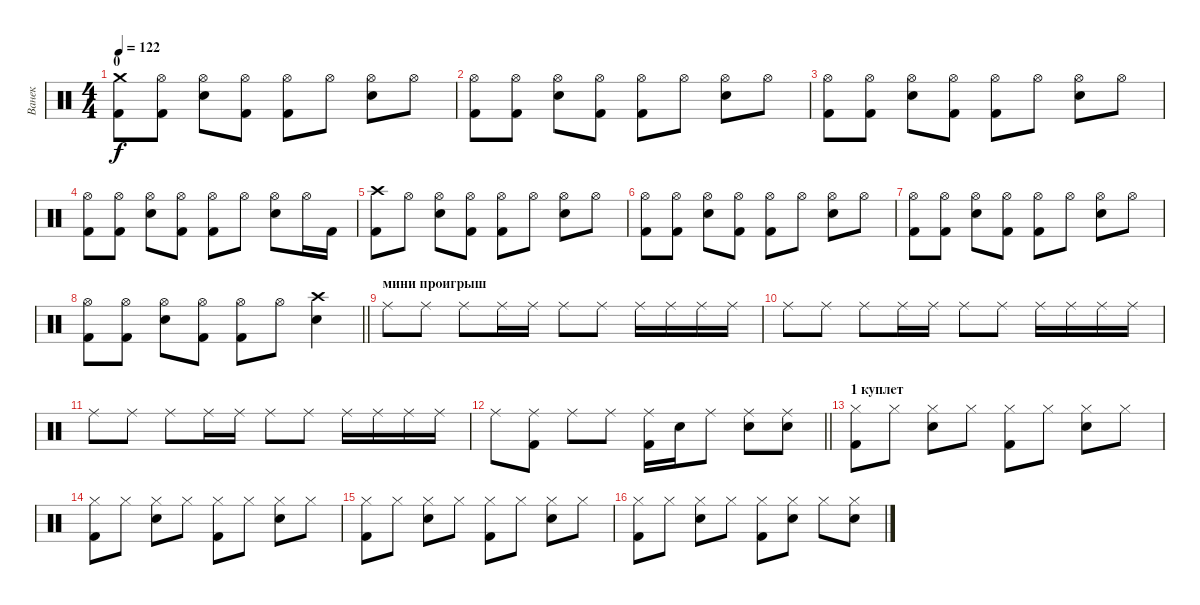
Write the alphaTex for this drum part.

\track ("Ванек" "Ванек") {instrument percussion}
\staff {score}
\articulation defaults
\ts (4 4)
\section ("" "0")
\tempo 122
\clef neutral
\ks c
("Crash medium (hit)" "Kick (hit) 2").8{dy f} ("Hi-Hat (open)" "Kick (hit) 2").8 ("Hi-Hat (open)" "Electric Snare (hit)").8 ("Hi-Hat (open)" "Kick (hit) 2").8 ("Hi-Hat (open)" "Kick (hit) 2").8 "Hi-Hat (open)".8 ("Hi-Hat (open)" "Electric Snare (hit)").8 "Hi-Hat (open)".8 |
("Hi-Hat (open)" "Kick (hit) 2").8 ("Hi-Hat (open)" "Kick (hit) 2").8 ("Hi-Hat (open)" "Electric Snare (hit)").8 ("Hi-Hat (open)" "Kick (hit) 2").8 ("Hi-Hat (open)" "Kick (hit) 2").8 "Hi-Hat (open)".8 ("Hi-Hat (open)" "Electric Snare (hit)").8 "Hi-Hat (open)".8 |
("Hi-Hat (open)" "Kick (hit) 2").8 ("Hi-Hat (open)" "Kick (hit) 2").8 ("Hi-Hat (open)" "Electric Snare (hit)").8 ("Hi-Hat (open)" "Kick (hit) 2").8 ("Hi-Hat (open)" "Kick (hit) 2").8 "Hi-Hat (open)".8 ("Hi-Hat (open)" "Electric Snare (hit)").8 "Hi-Hat (open)".8 |
("Hi-Hat (open)" "Kick (hit) 2").8 ("Hi-Hat (open)" "Kick (hit) 2").8 ("Hi-Hat (open)" "Electric Snare (hit)").8 ("Hi-Hat (open)" "Kick (hit) 2").8 ("Hi-Hat (open)" "Kick (hit) 2").8 "Hi-Hat (open)".8 ("Hi-Hat (open)" "Electric Snare (hit)").8 "Hi-Hat (open)".16 "Kick (hit) 2".16 |
("Crash high (hit)" "Kick (hit) 2").8 "Hi-Hat (open)".8 ("Hi-Hat (open)" "Electric Snare (hit)").8 ("Hi-Hat (open)" "Kick (hit) 2").8 ("Hi-Hat (open)" "Kick (hit) 2").8 "Hi-Hat (open)".8 ("Hi-Hat (open)" "Electric Snare (hit)").8 "Hi-Hat (open)".8 |
("Hi-Hat (open)" "Kick (hit) 2").8 ("Hi-Hat (open)" "Kick (hit) 2").8 ("Hi-Hat (open)" "Electric Snare (hit)").8 ("Hi-Hat (open)" "Kick (hit) 2").8 ("Hi-Hat (open)" "Kick (hit) 2").8 "Hi-Hat (open)".8 ("Hi-Hat (open)" "Electric Snare (hit)").8 "Hi-Hat (open)".8 |
("Hi-Hat (open)" "Kick (hit) 2").8 ("Hi-Hat (open)" "Kick (hit) 2").8 ("Hi-Hat (open)" "Electric Snare (hit)").8 ("Hi-Hat (open)" "Kick (hit) 2").8 ("Hi-Hat (open)" "Kick (hit) 2").8 "Hi-Hat (open)".8 ("Hi-Hat (open)" "Electric Snare (hit)").8 "Hi-Hat (open)".8 |
\barLineRight lightlight
("Hi-Hat (open)" "Kick (hit) 2").8 ("Hi-Hat (open)" "Kick (hit) 2").8 ("Hi-Hat (open)" "Electric Snare (hit)").8 ("Hi-Hat (open)" "Kick (hit) 2").8 ("Hi-Hat (open)" "Kick (hit) 2").8 "Hi-Hat (open)".8 ("Crash high (hit)" "Electric Snare (hit)").4 |
\section ("" "мини проигрыш")
"Ride (middle)".8 "Ride (middle)".8 "Ride (middle)".8 "Ride (middle)".16 "Ride (middle)".16 "Ride (middle)".8 "Ride (middle)".8 "Ride (middle)".16 "Ride (middle)".16 "Ride (middle)".16 "Ride (middle)".16 |
"Ride (middle)".8 "Ride (middle)".8 "Ride (middle)".8 "Ride (middle)".16 "Ride (middle)".16 "Ride (middle)".8 "Ride (middle)".8 "Ride (middle)".16 "Ride (middle)".16 "Ride (middle)".16 "Ride (middle)".16 |
"Ride (middle)".8 "Ride (middle)".8 "Ride (middle)".8 "Ride (middle)".16 "Ride (middle)".16 "Ride (middle)".8 "Ride (middle)".8 "Ride (middle)".16 "Ride (middle)".16 "Ride (middle)".16 "Ride (middle)".16 |
\barLineRight lightlight "Ride (middle)".8
("Ride (middle)" "Kick (hit) 2").8 "Ride (middle)".8 "Ride (middle)".8 ("Ride (middle)" "Kick (hit) 2").16 "Electric Snare (hit)".16 "Ride (middle)".8 ("Ride (middle)" "Electric Snare (hit)").8 ("Ride (middle)" "Electric Snare (hit)").8 |
\section ("" "1 куплет")
("Hi-Hat (closed)" "Kick (hit) 2").8 "Hi-Hat (closed)".8 ("Hi-Hat (closed)" "Electric Snare (hit)").8 "Hi-Hat (closed)".8 ("Hi-Hat (closed)" "Kick (hit) 2").8 "Hi-Hat (closed)".8 ("Hi-Hat (closed)" "Electric Snare (hit)").8 "Hi-Hat (closed)".8 |
("Hi-Hat (closed)" "Kick (hit) 2").8 "Hi-Hat (closed)".8 ("Hi-Hat (closed)" "Electric Snare (hit)").8 "Hi-Hat (closed)".8 ("Hi-Hat (closed)" "Kick (hit) 2").8 "Hi-Hat (closed)".8 ("Hi-Hat (closed)" "Electric Snare (hit)").8 "Hi-Hat (closed)".8 |
("Hi-Hat (closed)" "Kick (hit) 2").8 "Hi-Hat (closed)".8 ("Hi-Hat (closed)" "Electric Snare (hit)").8 "Hi-Hat (closed)".8 ("Hi-Hat (closed)" "Kick (hit) 2").8 "Hi-Hat (closed)".8 ("Hi-Hat (closed)" "Electric Snare (hit)").8 "Hi-Hat (closed)".8 |
("Hi-Hat (closed)" "Kick (hit) 2").8 "Hi-Hat (closed)".8 ("Hi-Hat (closed)" "Electric Snare (hit)").8 "Hi-Hat (closed)".8 ("Hi-Hat (closed)" "Kick (hit) 2").8 ("Hi-Hat (closed)" "Electric Snare (hit)").8 "Hi-Hat (closed)".8 ("Hi-Hat (closed)" "Electric Snare (hit)").8
